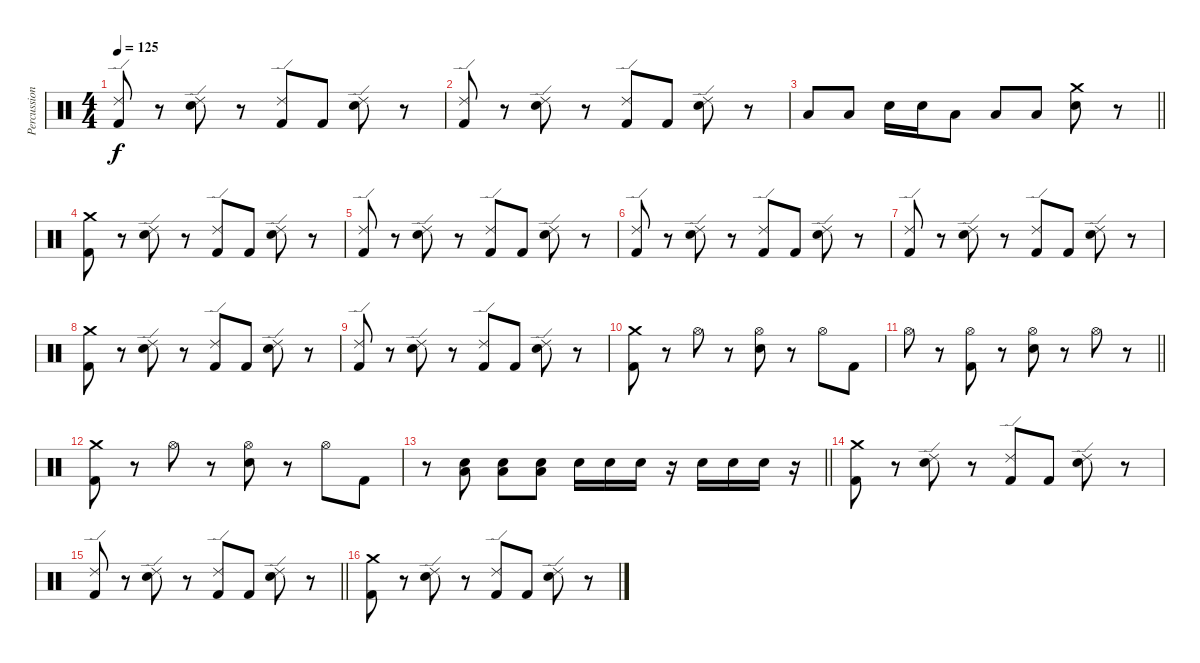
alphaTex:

\track ("Percussion" "Percussion") {instrument percussion}
\staff {score}
\articulation defaults
\ts (4 4)
\tempo 125
\clef neutral
\ks c
("Ride (edge) 2" "Kick (hit) 2").8{dy f} r.8 ("Ride (edge) 2" "Electric Snare (hit)").8 r.8 ("Ride (edge) 2" "Kick (hit) 2").8 "Kick (hit) 2".8 ("Ride (edge) 2" "Electric Snare (hit)").8 r.8 |
("Ride (edge) 2" "Kick (hit) 2").8 r.8 ("Ride (edge) 2" "Electric Snare (hit)").8 r.8 ("Ride (edge) 2" "Kick (hit) 2").8 "Kick (hit) 2".8 ("Ride (edge) 2" "Electric Snare (hit)").8 r.8 |
\barLineRight lightlight "Low Tom (hit)".8 "Low Tom (hit)".8 "Electric Snare (hit)".16 "Electric Snare (hit)".16 "Low Tom (hit)".8 "Low Tom (hit)".8 "Low Tom (hit)".8
("Crash medium (hit)" "Electric Snare (hit)").8 r.8 |
("Crash medium (hit)" "Kick (hit) 2").8 r.8 ("Ride (edge) 2" "Electric Snare (hit)").8 r.8 ("Ride (edge) 2" "Kick (hit) 2").8 "Kick (hit) 2".8 ("Ride (edge) 2" "Electric Snare (hit)").8 r.8 |
("Ride (edge) 2" "Kick (hit) 2").8 r.8 ("Ride (edge) 2" "Electric Snare (hit)").8 r.8 ("Ride (edge) 2" "Kick (hit) 2").8 "Kick (hit) 2".8 ("Ride (edge) 2" "Electric Snare (hit)").8 r.8 |
("Ride (edge) 2" "Kick (hit) 2").8 r.8 ("Ride (edge) 2" "Electric Snare (hit)").8 r.8 ("Ride (edge) 2" "Kick (hit) 2").8 "Kick (hit) 2".8 ("Ride (edge) 2" "Electric Snare (hit)").8 r.8 |
("Ride (edge) 2" "Kick (hit) 2").8 r.8 ("Ride (edge) 2" "Electric Snare (hit)").8 r.8 ("Ride (edge) 2" "Kick (hit) 2").8 "Kick (hit) 2".8 ("Ride (edge) 2" "Electric Snare (hit)").8 r.8 |
("Crash medium (hit)" "Kick (hit) 2").8 r.8 ("Ride (edge) 2" "Electric Snare (hit)").8 r.8 ("Ride (edge) 2" "Kick (hit) 2").8 "Kick (hit) 2".8 ("Ride (edge) 2" "Electric Snare (hit)").8 r.8 |
("Ride (edge) 2" "Kick (hit) 2").8 r.8 ("Ride (edge) 2" "Electric Snare (hit)").8 r.8 ("Ride (edge) 2" "Kick (hit) 2").8 "Kick (hit) 2".8 ("Ride (edge) 2" "Electric Snare (hit)").8 r.8 |
("Crash medium (hit)" "Kick (hit) 2").8 r.8 "Hi-Hat (open)".8 r.8 ("Hi-Hat (open)" "Electric Snare (hit)").8 r.8 "Hi-Hat (open)".8 "Kick (hit) 2".8 |
\barLineRight lightlight "Hi-Hat (open)".8
r.8 ("Hi-Hat (open)" "Kick (hit) 2").8 r.8 ("Hi-Hat (open)" "Electric Snare (hit)").8 r.8 "Hi-Hat (open)".8 r.8 |
("Crash medium (hit)" "Kick (hit) 2").8 r.8 "Hi-Hat (open)".8 r.8 ("Hi-Hat (open)" "Electric Snare (hit)").8 r.8 "Hi-Hat (open)".8 "Kick (hit) 2".8 |
\barLineRight lightlight
r.8 ("Low Tom (hit)" "Electric Snare (hit)").8 ("Low Tom (hit)" "Electric Snare (hit)").8 ("Low Tom (hit)" "Electric Snare (hit)").8 "Electric Snare (hit)".16 "Electric Snare (hit)".16 "Electric Snare (hit)".16 r.16 "Electric Snare (hit)".16 "Electric Snare (hit)".16 "Electric Snare (hit)".16 r.16 |
("Crash medium (hit)" "Kick (hit) 2").8 r.8 ("Ride (edge) 2" "Electric Snare (hit)").8 r.8 ("Ride (edge) 2" "Kick (hit) 2").8 "Kick (hit) 2".8 ("Ride (edge) 2" "Electric Snare (hit)").8 r.8 |
\barLineRight lightlight
("Ride (edge) 2" "Kick (hit) 2").8 r.8 ("Ride (edge) 2" "Electric Snare (hit)").8 r.8 ("Ride (edge) 2" "Kick (hit) 2").8 "Kick (hit) 2".8 ("Ride (edge) 2" "Electric Snare (hit)").8 r.8 |
("Crash medium (hit)" "Kick (hit) 2").8 r.8 ("Ride (edge) 2" "Electric Snare (hit)").8 r.8 ("Ride (edge) 2" "Kick (hit) 2").8 "Kick (hit) 2".8 ("Ride (edge) 2" "Electric Snare (hit)").8 r.8
